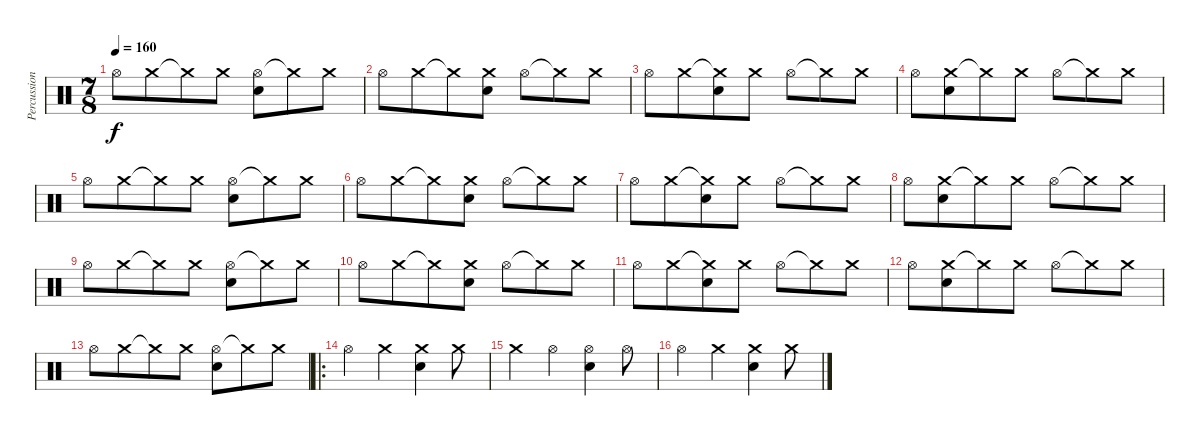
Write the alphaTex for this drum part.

\track ("Percussion" "Percussion") {instrument percussion}
\staff {score}
\articulation defaults
\ts (7 8)
\tempo 160
\clef neutral
\ks c "Hi-Hat (open)".8{dy f} "Crash medium (hit)".8 "Crash medium (hit)"{t}.8 "Crash medium (hit)".8
("Hi-Hat (open)" "Snare (hit) 2").8 "Crash medium (hit)"{t}.8 "Crash medium (hit)".8 |
"Hi-Hat (open)".8 "Crash medium (hit)".8 "Crash medium (hit)"{t}.8 ("Crash medium (hit)" "Snare (hit) 2").8 "Hi-Hat (open)".8 "Crash medium (hit)"{t}.8 "Crash medium (hit)".8 |
"Hi-Hat (open)".8 "Crash medium (hit)".8 ("Crash medium (hit)"{t} "Snare (hit) 2").8 "Crash medium (hit)".8 "Hi-Hat (open)".8 "Crash medium (hit)"{t}.8 "Crash medium (hit)".8 |
"Hi-Hat (open)".8 ("Crash medium (hit)" "Snare (hit) 2").8 "Crash medium (hit)"{t}.8 "Crash medium (hit)".8 "Hi-Hat (open)".8 "Crash medium (hit)"{t}.8 "Crash medium (hit)".8 |
"Hi-Hat (open)".8 "Crash medium (hit)".8 "Crash medium (hit)"{t}.8 "Crash medium (hit)".8 ("Hi-Hat (open)" "Snare (hit) 2").8 "Crash medium (hit)"{t}.8 "Crash medium (hit)".8 |
"Hi-Hat (open)".8 "Crash medium (hit)".8 "Crash medium (hit)"{t}.8 ("Crash medium (hit)" "Snare (hit) 2").8 "Hi-Hat (open)".8 "Crash medium (hit)"{t}.8 "Crash medium (hit)".8 |
"Hi-Hat (open)".8 "Crash medium (hit)".8 ("Crash medium (hit)"{t} "Snare (hit) 2").8 "Crash medium (hit)".8 "Hi-Hat (open)".8 "Crash medium (hit)"{t}.8 "Crash medium (hit)".8 |
"Hi-Hat (open)".8 ("Crash medium (hit)" "Snare (hit) 2").8 "Crash medium (hit)"{t}.8 "Crash medium (hit)".8 "Hi-Hat (open)".8 "Crash medium (hit)"{t}.8 "Crash medium (hit)".8 |
"Hi-Hat (open)".8 "Crash medium (hit)".8 "Crash medium (hit)"{t}.8 "Crash medium (hit)".8 ("Hi-Hat (open)" "Snare (hit) 2").8 "Crash medium (hit)"{t}.8 "Crash medium (hit)".8 |
"Hi-Hat (open)".8 "Crash medium (hit)".8 "Crash medium (hit)"{t}.8 ("Crash medium (hit)" "Snare (hit) 2").8 "Hi-Hat (open)".8 "Crash medium (hit)"{t}.8 "Crash medium (hit)".8 |
"Hi-Hat (open)".8 "Crash medium (hit)".8 ("Crash medium (hit)"{t} "Snare (hit) 2").8 "Crash medium (hit)".8 "Hi-Hat (open)".8 "Crash medium (hit)"{t}.8 "Crash medium (hit)".8 |
"Hi-Hat (open)".8 ("Crash medium (hit)" "Snare (hit) 2").8 "Crash medium (hit)"{t}.8 "Crash medium (hit)".8 "Hi-Hat (open)".8 "Crash medium (hit)"{t}.8 "Crash medium (hit)".8 |
"Hi-Hat (open)".8 "Crash medium (hit)".8 "Crash medium (hit)"{t}.8 "Crash medium (hit)".8 ("Hi-Hat (open)" "Snare (hit) 2").8 "Crash medium (hit)"{t}.8 "Crash medium (hit)".8 |
\ro "Hi-Hat (open)".4 "Crash medium (hit)".4
("Crash medium (hit)" "Snare (hit) 2").4 "Crash medium (hit)".8 |
"Crash medium (hit)".4 "Hi-Hat (open)".4 ("Hi-Hat (open)" "Snare (hit) 2").4 "Hi-Hat (open)".8 |
"Hi-Hat (open)".4 "Crash medium (hit)".4 ("Crash medium (hit)" "Snare (hit) 2").4 "Crash medium (hit)".8
